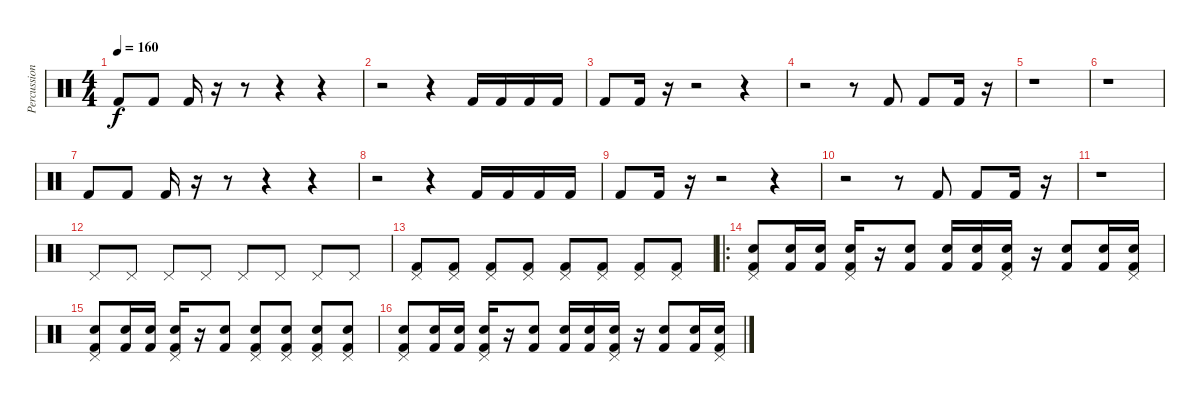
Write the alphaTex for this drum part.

\track ("Percussions" "Percussion") {instrument percussion}
\staff {score}
\articulation defaults
\ts (4 4)
\tempo 160
\clef neutral
\ks c "Kick (hit) 2".8{dy f} "Kick (hit) 2".8 "Kick (hit) 2".16
r.16 r.8 r.4 r.4 |
r.2 r.4 "Kick (hit) 2".16 "Kick (hit) 2".16 "Kick (hit) 2".16 "Kick (hit) 2".16 |
"Kick (hit) 2".8 "Kick (hit) 2".16 r.16 r.2 r.4 |
r.2 r.8 "Kick (hit) 2".8 "Kick (hit) 2".8 "Kick (hit) 2".16 r.16 |
r.1 |
r.1 |
"Kick (hit) 2".8 "Kick (hit) 2".8 "Kick (hit) 2".16 r.16 r.8 r.4 r.4 |
r.2 r.4 "Kick (hit) 2".16 "Kick (hit) 2".16 "Kick (hit) 2".16 "Kick (hit) 2".16 |
"Kick (hit) 2".8 "Kick (hit) 2".16 r.16 r.2 r.4 |
r.2 r.8 "Kick (hit) 2".8 "Kick (hit) 2".8 "Kick (hit) 2".16 r.16 |
r.1 |
"Pedal Hi-Hat (hit)".8 "Pedal Hi-Hat (hit)".8 "Pedal Hi-Hat (hit)".8 "Pedal Hi-Hat (hit)".8 "Pedal Hi-Hat (hit)".8 "Pedal Hi-Hat (hit)".8 "Pedal Hi-Hat (hit)".8 "Pedal Hi-Hat (hit)".8 |
("Pedal Hi-Hat (hit)" "Kick (hit) 2").8 ("Pedal Hi-Hat (hit)" "Kick (hit) 2").8 ("Pedal Hi-Hat (hit)" "Kick (hit) 2").8 ("Pedal Hi-Hat (hit)" "Kick (hit) 2").8 ("Pedal Hi-Hat (hit)" "Kick (hit) 2").8 ("Pedal Hi-Hat (hit)" "Kick (hit) 2").8 ("Pedal Hi-Hat (hit)" "Kick (hit) 2").8 ("Pedal Hi-Hat (hit)" "Kick (hit) 2").8 |
\ro
("Kick (hit) 2" "Snare (hit) 2" "Pedal Hi-Hat (hit)").8 ("Kick (hit) 2" "Snare (hit) 2").16 ("Kick (hit) 2" "Snare (hit) 2").16 ("Kick (hit) 2" "Snare (hit) 2" "Pedal Hi-Hat (hit)").16 r.16 ("Kick (hit) 2" "Snare (hit) 2").8 ("Kick (hit) 2" "Snare (hit) 2").16 ("Kick (hit) 2" "Snare (hit) 2").16 ("Kick (hit) 2" "Snare (hit) 2" "Pedal Hi-Hat (hit)").16 r.16 ("Kick (hit) 2" "Snare (hit) 2").8 ("Kick (hit) 2" "Snare (hit) 2").16 ("Kick (hit) 2" "Snare (hit) 2" "Pedal Hi-Hat (hit)").16 |
("Kick (hit) 2" "Snare (hit) 2" "Pedal Hi-Hat (hit)").8 ("Kick (hit) 2" "Snare (hit) 2").16 ("Kick (hit) 2" "Snare (hit) 2").16 ("Kick (hit) 2" "Snare (hit) 2" "Pedal Hi-Hat (hit)").16 r.16 ("Kick (hit) 2" "Snare (hit) 2").8 ("Kick (hit) 2" "Snare (hit) 2" "Pedal Hi-Hat (hit)").8 ("Kick (hit) 2" "Snare (hit) 2" "Pedal Hi-Hat (hit)").8 ("Kick (hit) 2" "Snare (hit) 2" "Pedal Hi-Hat (hit)").8 ("Kick (hit) 2" "Snare (hit) 2" "Pedal Hi-Hat (hit)").8 |
("Kick (hit) 2" "Snare (hit) 2" "Pedal Hi-Hat (hit)").8 ("Kick (hit) 2" "Snare (hit) 2").16 ("Kick (hit) 2" "Snare (hit) 2").16 ("Kick (hit) 2" "Snare (hit) 2" "Pedal Hi-Hat (hit)").16 r.16 ("Kick (hit) 2" "Snare (hit) 2").8 ("Kick (hit) 2" "Snare (hit) 2").16 ("Kick (hit) 2" "Snare (hit) 2").16 ("Kick (hit) 2" "Snare (hit) 2" "Pedal Hi-Hat (hit)").16 r.16 ("Kick (hit) 2" "Snare (hit) 2").8 ("Kick (hit) 2" "Snare (hit) 2").16 ("Kick (hit) 2" "Snare (hit) 2" "Pedal Hi-Hat (hit)").16
